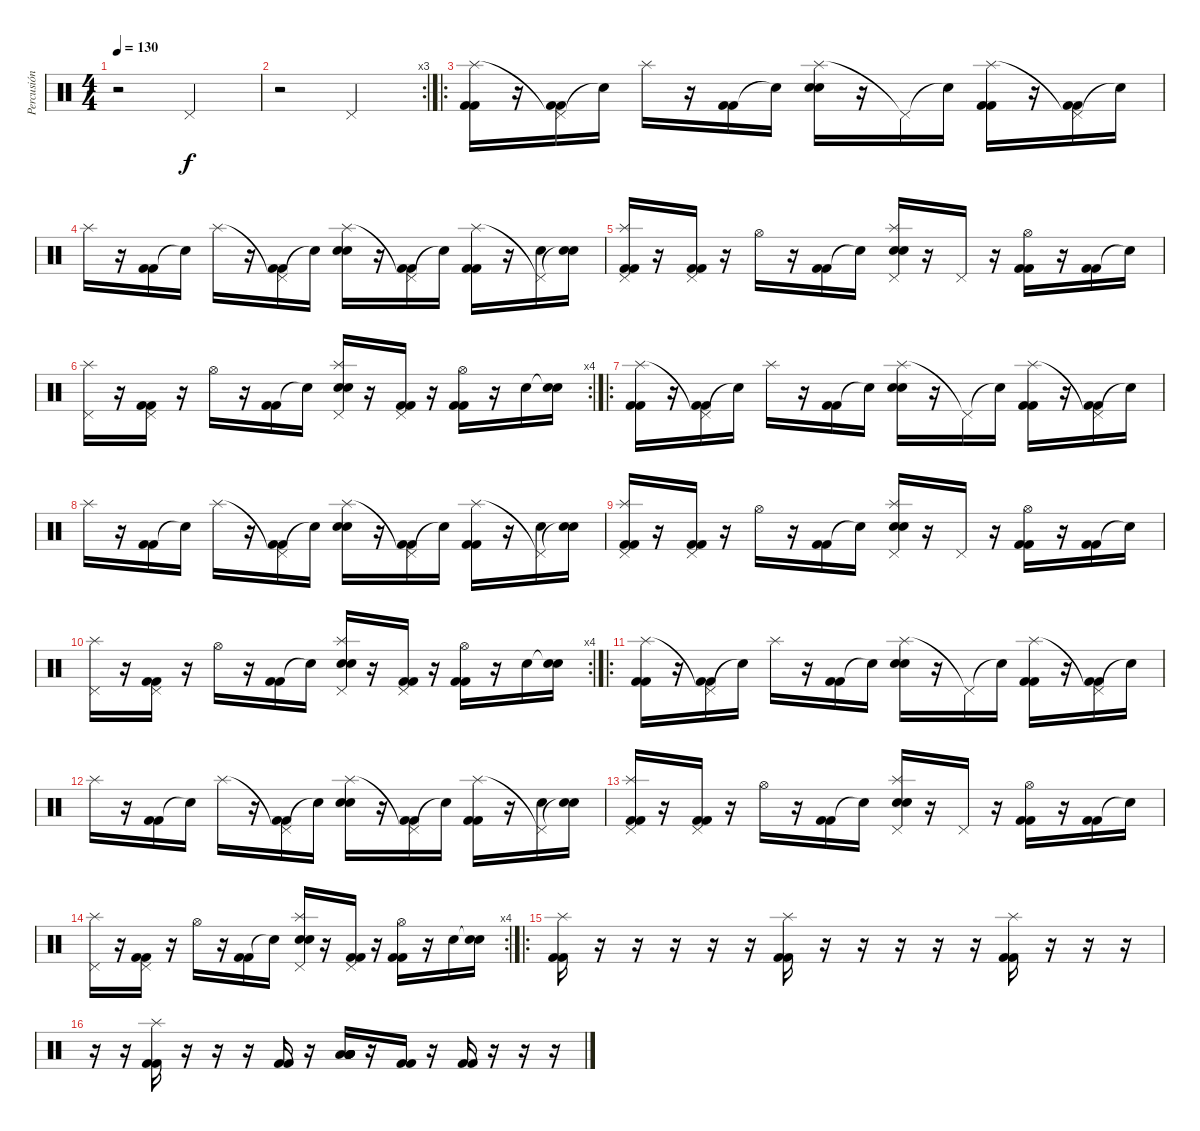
\track ("Percusión" "Percusión") {instrument percussion}
\staff {score}
\articulation defaults
\ts (4 4)
\tempo 130
\clef neutral
\ks c
r.2{dy f} "Pedal Hi-Hat (hit)".2 |
\rc 3
r.2 "Pedal Hi-Hat (hit)".2 |
\ro
("Splash (hit)" "Kick (hit) 2" "Kick (hit) 2").16 r.16 ("Pedal Hi-Hat (hit)"{t} "Kick (hit) 2" "Kick (hit) 2").16 "Snare (hit)"{t}.16 "Splash (hit)".16 r.16 ("Kick (hit) 2" "Kick (hit) 2").16 "Snare (hit)"{t}.16 ("Splash (hit)" "Electric Snare (hit)" "Electric Snare (hit)").16 r.16 "Pedal Hi-Hat (hit)"{t}.16 "Snare (hit)"{t}.16 ("Splash (hit)" "Kick (hit) 2" "Kick (hit) 2").16 r.16 ("Pedal Hi-Hat (hit)"{t} "Kick (hit) 2" "Kick (hit) 2").16 "Snare (hit)"{t}.16 |
"Splash (hit)".16 r.16 ("Kick (hit) 2" "Kick (hit) 2").16 "Snare (hit)"{t}.16 "Splash (hit)".16 r.16 ("Pedal Hi-Hat (hit)"{t} "Kick (hit) 2" "Kick (hit) 2").16 "Snare (hit)"{t}.16 ("Splash (hit)" "Electric Snare (hit)" "Electric Snare (hit)").16 r.16 ("Pedal Hi-Hat (hit)"{t} "Kick (hit) 2" "Kick (hit) 2").16 "Snare (hit)"{t}.16 ("Splash (hit)" "Kick (hit) 2" "Kick (hit) 2").16 r.16 ("Pedal Hi-Hat (hit)"{t} "Electric Snare (hit)").16 ("Snare (hit)"{t} "Electric Snare (hit)").16 |
("Pedal Hi-Hat (hit)" "Splash (hit)" "Kick (hit) 2" "Kick (hit) 2").16 r.16 ("Pedal Hi-Hat (hit)" "Kick (hit) 2" "Kick (hit) 2").16 r.16 "Hi-Hat (open)".16 r.16 ("Kick (hit) 2" "Kick (hit) 2").16 "Snare (hit)"{t}.16 ("Pedal Hi-Hat (hit)" "Splash (hit)" "Electric Snare (hit)" "Electric Snare (hit)").16 r.16 "Pedal Hi-Hat (hit)".16 r.16 ("Hi-Hat (open)" "Kick (hit) 2" "Kick (hit) 2").16 r.16 ("Kick (hit) 2" "Kick (hit) 2").16 "Snare (hit)"{t}.16 |
\rc 4
("Pedal Hi-Hat (hit)" "Splash (hit)").16 r.16 ("Pedal Hi-Hat (hit)" "Kick (hit) 2" "Kick (hit) 2").16 r.16 "Hi-Hat (open)".16 r.16 ("Kick (hit) 2" "Kick (hit) 2").16 "Snare (hit)"{t}.16 ("Pedal Hi-Hat (hit)" "Splash (hit)" "Electric Snare (hit)" "Electric Snare (hit)").16 r.16 ("Pedal Hi-Hat (hit)" "Kick (hit) 2" "Kick (hit) 2").16 r.16 ("Hi-Hat (open)" "Kick (hit) 2" "Kick (hit) 2").16 r.16 "Electric Snare (hit)".16 ("Snare (hit)"{t} "Electric Snare (hit)").16 |
\ro
("Splash (hit)" "Kick (hit) 2" "Kick (hit) 2").16 r.16 ("Pedal Hi-Hat (hit)"{t} "Kick (hit) 2" "Kick (hit) 2").16 "Snare (hit)"{t}.16 "Splash (hit)".16 r.16 ("Kick (hit) 2" "Kick (hit) 2").16 "Snare (hit)"{t}.16 ("Splash (hit)" "Electric Snare (hit)" "Electric Snare (hit)").16 r.16 "Pedal Hi-Hat (hit)"{t}.16 "Snare (hit)"{t}.16 ("Splash (hit)" "Kick (hit) 2" "Kick (hit) 2").16 r.16 ("Pedal Hi-Hat (hit)"{t} "Kick (hit) 2" "Kick (hit) 2").16 "Snare (hit)"{t}.16 |
"Splash (hit)".16 r.16 ("Kick (hit) 2" "Kick (hit) 2").16 "Snare (hit)"{t}.16 "Splash (hit)".16 r.16 ("Pedal Hi-Hat (hit)"{t} "Kick (hit) 2" "Kick (hit) 2").16 "Snare (hit)"{t}.16 ("Splash (hit)" "Electric Snare (hit)" "Electric Snare (hit)").16 r.16 ("Pedal Hi-Hat (hit)"{t} "Kick (hit) 2" "Kick (hit) 2").16 "Snare (hit)"{t}.16 ("Splash (hit)" "Kick (hit) 2" "Kick (hit) 2").16 r.16 ("Pedal Hi-Hat (hit)"{t} "Electric Snare (hit)").16 ("Snare (hit)"{t} "Electric Snare (hit)").16 |
("Pedal Hi-Hat (hit)" "Splash (hit)" "Kick (hit) 2" "Kick (hit) 2").16 r.16 ("Pedal Hi-Hat (hit)" "Kick (hit) 2" "Kick (hit) 2").16 r.16 "Hi-Hat (open)".16 r.16 ("Kick (hit) 2" "Kick (hit) 2").16 "Snare (hit)"{t}.16 ("Pedal Hi-Hat (hit)" "Splash (hit)" "Electric Snare (hit)" "Electric Snare (hit)").16 r.16 "Pedal Hi-Hat (hit)".16 r.16 ("Hi-Hat (open)" "Kick (hit) 2" "Kick (hit) 2").16 r.16 ("Kick (hit) 2" "Kick (hit) 2").16 "Snare (hit)"{t}.16 |
\rc 4
("Pedal Hi-Hat (hit)" "Splash (hit)").16 r.16 ("Pedal Hi-Hat (hit)" "Kick (hit) 2" "Kick (hit) 2").16 r.16 "Hi-Hat (open)".16 r.16 ("Kick (hit) 2" "Kick (hit) 2").16 "Snare (hit)"{t}.16 ("Pedal Hi-Hat (hit)" "Splash (hit)" "Electric Snare (hit)" "Electric Snare (hit)").16 r.16 ("Pedal Hi-Hat (hit)" "Kick (hit) 2" "Kick (hit) 2").16 r.16 ("Hi-Hat (open)" "Kick (hit) 2" "Kick (hit) 2").16 r.16 "Electric Snare (hit)".16 ("Snare (hit)"{t} "Electric Snare (hit)").16 |
\ro
("Splash (hit)" "Kick (hit) 2" "Kick (hit) 2").16 r.16 ("Pedal Hi-Hat (hit)"{t} "Kick (hit) 2" "Kick (hit) 2").16 "Snare (hit)"{t}.16 "Splash (hit)".16 r.16 ("Kick (hit) 2" "Kick (hit) 2").16 "Snare (hit)"{t}.16 ("Splash (hit)" "Electric Snare (hit)" "Electric Snare (hit)").16 r.16 "Pedal Hi-Hat (hit)"{t}.16 "Snare (hit)"{t}.16 ("Splash (hit)" "Kick (hit) 2" "Kick (hit) 2").16 r.16 ("Pedal Hi-Hat (hit)"{t} "Kick (hit) 2" "Kick (hit) 2").16 "Snare (hit)"{t}.16 |
"Splash (hit)".16 r.16 ("Kick (hit) 2" "Kick (hit) 2").16 "Snare (hit)"{t}.16 "Splash (hit)".16 r.16 ("Pedal Hi-Hat (hit)"{t} "Kick (hit) 2" "Kick (hit) 2").16 "Snare (hit)"{t}.16 ("Splash (hit)" "Electric Snare (hit)" "Electric Snare (hit)").16 r.16 ("Pedal Hi-Hat (hit)"{t} "Kick (hit) 2" "Kick (hit) 2").16 "Snare (hit)"{t}.16 ("Splash (hit)" "Kick (hit) 2" "Kick (hit) 2").16 r.16 ("Pedal Hi-Hat (hit)"{t} "Electric Snare (hit)").16 ("Snare (hit)"{t} "Electric Snare (hit)").16 |
("Pedal Hi-Hat (hit)" "Splash (hit)" "Kick (hit) 2" "Kick (hit) 2").16 r.16 ("Pedal Hi-Hat (hit)" "Kick (hit) 2" "Kick (hit) 2").16 r.16 "Hi-Hat (open)".16 r.16 ("Kick (hit) 2" "Kick (hit) 2").16 "Snare (hit)"{t}.16 ("Pedal Hi-Hat (hit)" "Splash (hit)" "Electric Snare (hit)" "Electric Snare (hit)").16 r.16 "Pedal Hi-Hat (hit)".16 r.16 ("Hi-Hat (open)" "Kick (hit) 2" "Kick (hit) 2").16 r.16 ("Kick (hit) 2" "Kick (hit) 2").16 "Snare (hit)"{t}.16 |
\rc 4
("Pedal Hi-Hat (hit)" "Splash (hit)").16 r.16 ("Pedal Hi-Hat (hit)" "Kick (hit) 2" "Kick (hit) 2").16 r.16 "Hi-Hat (open)".16 r.16 ("Kick (hit) 2" "Kick (hit) 2").16 "Snare (hit)"{t}.16 ("Pedal Hi-Hat (hit)" "Splash (hit)" "Electric Snare (hit)" "Electric Snare (hit)").16 r.16 ("Pedal Hi-Hat (hit)" "Kick (hit) 2" "Kick (hit) 2").16 r.16 ("Hi-Hat (open)" "Kick (hit) 2" "Kick (hit) 2").16 r.16 "Electric Snare (hit)".16 ("Snare (hit)"{t} "Electric Snare (hit)").16 |
\ro
("Splash (hit)" "Kick (hit) 2" "Kick (hit) 2").16 r.16 r.16 r.16 r.16 r.16 ("Splash (hit)" "Kick (hit) 2" "Kick (hit) 2").16 r.16 r.16 r.16 r.16 r.16 ("Splash (hit)" "Kick (hit) 2" "Kick (hit) 2").16 r.16 r.16 r.16 |
r.16 r.16 ("Splash (hit)" "Kick (hit) 2" "Kick (hit) 2").16 r.16 r.16 r.16 ("Kick (hit) 2" "Kick (hit) 2").16 r.16 ("Low Tom (hit)" "Low Tom (hit)" "Low Tom (hit)" "Low Tom (hit)" "Low Tom (hit)" "Low Tom (hit)").16 r.16 ("Kick (hit) 2" "Kick (hit) 2").16 r.16 ("Kick (hit) 2" "Kick (hit) 2").16 r.16 r.16 r.16
